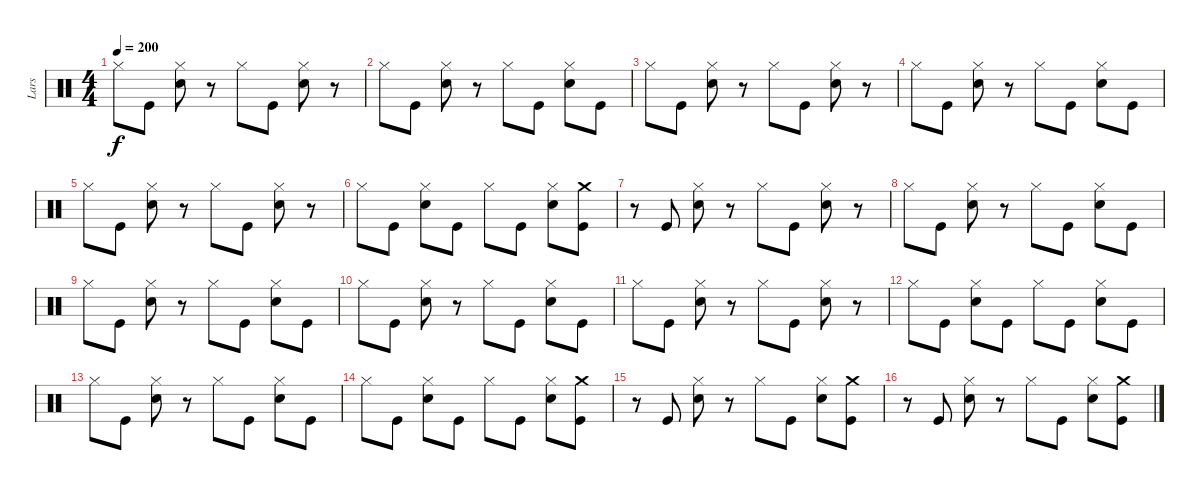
\track ("Lars" "Lars") {instrument percussion}
\staff {score}
\articulation defaults
\ts (4 4)
\tempo 200
\clef neutral
\ks c "Hi-Hat (closed)".8{dy f} "Kick (hit)".8
("Hi-Hat (closed)" "Snare (hit) 2").8 r.8 "Hi-Hat (closed)".8 "Kick (hit)".8 ("Snare (hit) 2" "Hi-Hat (closed)").8 r.8 |
"Hi-Hat (closed)".8 "Kick (hit)".8 ("Hi-Hat (closed)" "Snare (hit) 2").8 r.8 "Hi-Hat (closed)".8 "Kick (hit)".8 ("Hi-Hat (closed)" "Snare (hit) 2").8 "Kick (hit)".8 |
"Hi-Hat (closed)".8 "Kick (hit)".8 ("Hi-Hat (closed)" "Snare (hit) 2").8 r.8 "Hi-Hat (closed)".8 "Kick (hit)".8 ("Snare (hit) 2" "Hi-Hat (closed)").8 r.8 |
"Hi-Hat (closed)".8 "Kick (hit)".8 ("Hi-Hat (closed)" "Snare (hit) 2").8 r.8 "Hi-Hat (closed)".8 "Kick (hit)".8 ("Hi-Hat (closed)" "Snare (hit) 2").8 "Kick (hit)".8 |
"Hi-Hat (closed)".8 "Kick (hit)".8 ("Hi-Hat (closed)" "Snare (hit) 2").8 r.8 "Hi-Hat (closed)".8 "Kick (hit)".8 ("Snare (hit) 2" "Hi-Hat (closed)").8 r.8 |
"Hi-Hat (closed)".8 "Kick (hit)".8 ("Hi-Hat (closed)" "Snare (hit) 2").8 "Kick (hit)".8 "Hi-Hat (closed)".8 "Kick (hit)".8 ("Hi-Hat (closed)" "Snare (hit) 2").8 ("Crash medium (hit)" "Kick (hit)").8 |
r.8 "Kick (hit)".8 ("Hi-Hat (closed)" "Snare (hit) 2").8 r.8 "Hi-Hat (closed)".8 "Kick (hit)".8 ("Snare (hit) 2" "Hi-Hat (closed)").8 r.8 |
"Hi-Hat (closed)".8 "Kick (hit)".8 ("Hi-Hat (closed)" "Snare (hit) 2").8 r.8 "Hi-Hat (closed)".8 "Kick (hit)".8 ("Hi-Hat (closed)" "Snare (hit) 2").8 "Kick (hit)".8 |
"Hi-Hat (closed)".8 "Kick (hit)".8 ("Hi-Hat (closed)" "Snare (hit) 2").8 r.8 "Hi-Hat (closed)".8 "Kick (hit)".8 ("Hi-Hat (closed)" "Snare (hit) 2").8 "Kick (hit)".8 |
"Hi-Hat (closed)".8 "Kick (hit)".8 ("Hi-Hat (closed)" "Snare (hit) 2").8 r.8 "Hi-Hat (closed)".8 "Kick (hit)".8 ("Hi-Hat (closed)" "Snare (hit) 2").8 "Kick (hit)".8 |
"Hi-Hat (closed)".8 "Kick (hit)".8 ("Hi-Hat (closed)" "Snare (hit) 2").8 r.8 "Hi-Hat (closed)".8 "Kick (hit)".8 ("Hi-Hat (closed)" "Snare (hit) 2").8 r.8 |
"Hi-Hat (closed)".8 "Kick (hit)".8 ("Hi-Hat (closed)" "Snare (hit) 2").8 "Kick (hit)".8 "Hi-Hat (closed)".8 "Kick (hit)".8 ("Hi-Hat (closed)" "Snare (hit) 2").8 "Kick (hit)".8 |
"Hi-Hat (closed)".8 "Kick (hit)".8 ("Hi-Hat (closed)" "Snare (hit) 2").8 r.8 "Hi-Hat (closed)".8 "Kick (hit)".8 ("Snare (hit) 2" "Hi-Hat (closed)").8 "Kick (hit)".8 |
"Hi-Hat (closed)".8 "Kick (hit)".8 ("Hi-Hat (closed)" "Snare (hit) 2").8 "Kick (hit)".8 "Hi-Hat (closed)".8 "Kick (hit)".8 ("Hi-Hat (closed)" "Snare (hit) 2").8 ("Crash medium (hit)" "Kick (hit)").8 |
r.8 "Kick (hit)".8 ("Hi-Hat (closed)" "Snare (hit) 2").8 r.8 "Hi-Hat (closed)".8 "Kick (hit)".8 ("Snare (hit) 2" "Hi-Hat (closed)").8 ("Crash medium (hit)" "Kick (hit)").8 |
r.8 "Kick (hit)".8 ("Hi-Hat (closed)" "Snare (hit) 2").8 r.8 "Hi-Hat (closed)".8 "Kick (hit)".8 ("Snare (hit) 2" "Hi-Hat (closed)").8 ("Crash medium (hit)" "Kick (hit)").8
